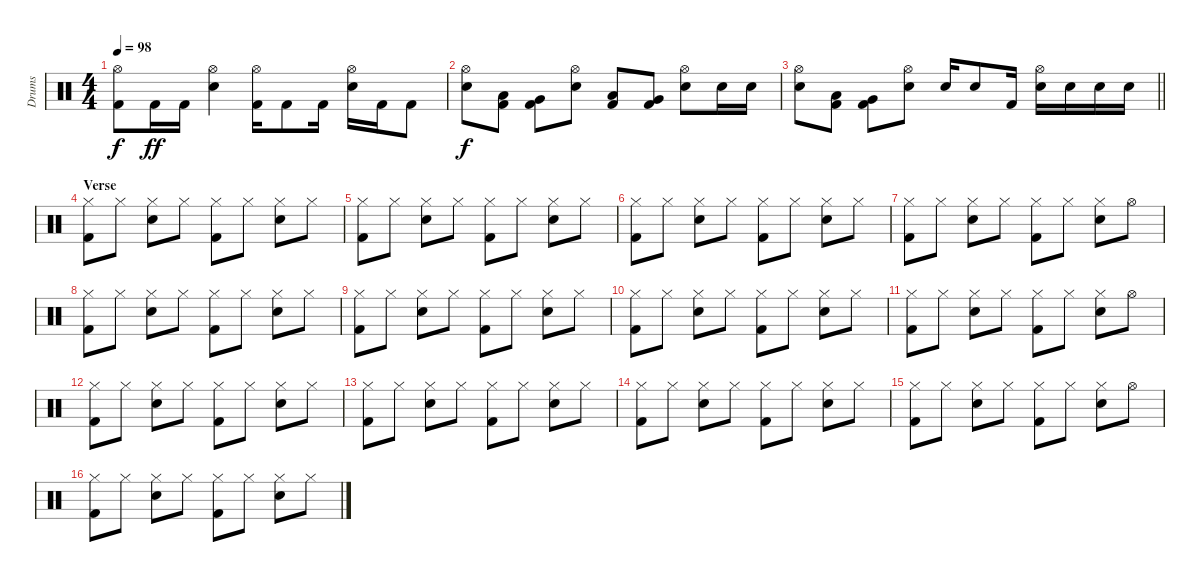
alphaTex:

\track ("Drums" "Drums") {instrument percussion}
\staff {score}
\articulation defaults
\ts (4 4)
\tempo 98
\clef neutral
\ks c
("Hi-Hat (open)" "Kick (hit) 2").8{dy f} "Kick (hit) 2".16{dy ff} "Kick (hit) 2".16 ("Hi-Hat (open)" "Snare (hit) 2").4 ("Hi-Hat (open)" "Kick (hit) 2").16 "Kick (hit) 2".8 "Kick (hit) 2".16 ("Hi-Hat (open)" "Snare (hit) 2").16 "Kick (hit) 2".16 "Kick (hit) 2".8 |
("Hi-Hat (open)" "Snare (hit) 2").8{dy f} ("Low Tom (hit)" "Kick (hit) 2").8 ("Very Low Tom (hit)" "Kick (hit) 2").8 ("Hi-Hat (open)" "Snare (hit) 2").8 ("Low Tom (hit)" "Kick (hit) 2").8 ("Very Low Tom (hit)" "Kick (hit) 2").8 ("Hi-Hat (open)" "Snare (hit) 2").8 "Snare (hit) 2".16 "Snare (hit) 2".16 |
\barLineRight lightlight
("Hi-Hat (open)" "Snare (hit) 2").8 ("Low Tom (hit)" "Kick (hit) 2").8 ("Very Low Tom (hit)" "Kick (hit) 2").8 ("Hi-Hat (open)" "Snare (hit) 2").8 "Snare (hit) 2".16 "Snare (hit) 2".8 "Kick (hit) 2".16 ("Hi-Hat (open)" "Snare (hit) 2").16 "Snare (hit) 2".16 "Snare (hit) 2".16 "Snare (hit) 2".16 |
\section ("" "Verse")
("Hi-Hat (closed)" "Kick (hit) 2").8 "Hi-Hat (closed)".8 ("Hi-Hat (closed)" "Snare (hit) 2").8 "Hi-Hat (closed)".8 ("Hi-Hat (closed)" "Kick (hit) 2").8 "Hi-Hat (closed)".8 ("Hi-Hat (closed)" "Snare (hit) 2").8 "Hi-Hat (closed)".8 |
("Hi-Hat (closed)" "Kick (hit) 2").8 "Hi-Hat (closed)".8 ("Hi-Hat (closed)" "Snare (hit) 2").8 "Hi-Hat (closed)".8 ("Hi-Hat (closed)" "Kick (hit) 2").8 "Hi-Hat (closed)".8 ("Hi-Hat (closed)" "Snare (hit) 2").8 "Hi-Hat (closed)".8 |
("Hi-Hat (closed)" "Kick (hit) 2").8 "Hi-Hat (closed)".8 ("Hi-Hat (closed)" "Snare (hit) 2").8 "Hi-Hat (closed)".8 ("Hi-Hat (closed)" "Kick (hit) 2").8 "Hi-Hat (closed)".8 ("Hi-Hat (closed)" "Snare (hit) 2").8 "Hi-Hat (closed)".8 |
("Hi-Hat (closed)" "Kick (hit) 2").8 "Hi-Hat (closed)".8 ("Hi-Hat (closed)" "Snare (hit) 2").8 "Hi-Hat (closed)".8 ("Hi-Hat (closed)" "Kick (hit) 2").8 "Hi-Hat (closed)".8 ("Hi-Hat (closed)" "Snare (hit) 2").8 "Hi-Hat (open)".8 |
("Hi-Hat (closed)" "Kick (hit) 2").8 "Hi-Hat (closed)".8 ("Hi-Hat (closed)" "Snare (hit) 2").8 "Hi-Hat (closed)".8 ("Hi-Hat (closed)" "Kick (hit) 2").8 "Hi-Hat (closed)".8 ("Hi-Hat (closed)" "Snare (hit) 2").8 "Hi-Hat (closed)".8 |
("Hi-Hat (closed)" "Kick (hit) 2").8 "Hi-Hat (closed)".8 ("Hi-Hat (closed)" "Snare (hit) 2").8 "Hi-Hat (closed)".8 ("Hi-Hat (closed)" "Kick (hit) 2").8 "Hi-Hat (closed)".8 ("Hi-Hat (closed)" "Snare (hit) 2").8 "Hi-Hat (closed)".8 |
("Hi-Hat (closed)" "Kick (hit) 2").8 "Hi-Hat (closed)".8 ("Hi-Hat (closed)" "Snare (hit) 2").8 "Hi-Hat (closed)".8 ("Hi-Hat (closed)" "Kick (hit) 2").8 "Hi-Hat (closed)".8 ("Hi-Hat (closed)" "Snare (hit) 2").8 "Hi-Hat (closed)".8 |
("Hi-Hat (closed)" "Kick (hit) 2").8 "Hi-Hat (closed)".8 ("Hi-Hat (closed)" "Snare (hit) 2").8 "Hi-Hat (closed)".8 ("Hi-Hat (closed)" "Kick (hit) 2").8 "Hi-Hat (closed)".8 ("Hi-Hat (closed)" "Snare (hit) 2").8 "Hi-Hat (open)".8 |
("Hi-Hat (closed)" "Kick (hit) 2").8 "Hi-Hat (closed)".8 ("Hi-Hat (closed)" "Snare (hit) 2").8 "Hi-Hat (closed)".8 ("Hi-Hat (closed)" "Kick (hit) 2").8 "Hi-Hat (closed)".8 ("Hi-Hat (closed)" "Snare (hit) 2").8 "Hi-Hat (closed)".8 |
("Hi-Hat (closed)" "Kick (hit) 2").8 "Hi-Hat (closed)".8 ("Hi-Hat (closed)" "Snare (hit) 2").8 "Hi-Hat (closed)".8 ("Hi-Hat (closed)" "Kick (hit) 2").8 "Hi-Hat (closed)".8 ("Hi-Hat (closed)" "Snare (hit) 2").8 "Hi-Hat (closed)".8 |
("Hi-Hat (closed)" "Kick (hit) 2").8 "Hi-Hat (closed)".8 ("Hi-Hat (closed)" "Snare (hit) 2").8 "Hi-Hat (closed)".8 ("Hi-Hat (closed)" "Kick (hit) 2").8 "Hi-Hat (closed)".8 ("Hi-Hat (closed)" "Snare (hit) 2").8 "Hi-Hat (closed)".8 |
("Hi-Hat (closed)" "Kick (hit) 2").8 "Hi-Hat (closed)".8 ("Hi-Hat (closed)" "Snare (hit) 2").8 "Hi-Hat (closed)".8 ("Hi-Hat (closed)" "Kick (hit) 2").8 "Hi-Hat (closed)".8 ("Hi-Hat (closed)" "Snare (hit) 2").8 "Hi-Hat (open)".8 |
("Hi-Hat (closed)" "Kick (hit) 2").8 "Hi-Hat (closed)".8 ("Hi-Hat (closed)" "Snare (hit) 2").8 "Hi-Hat (closed)".8 ("Hi-Hat (closed)" "Kick (hit) 2").8 "Hi-Hat (closed)".8 ("Hi-Hat (closed)" "Snare (hit) 2").8 "Hi-Hat (closed)".8
